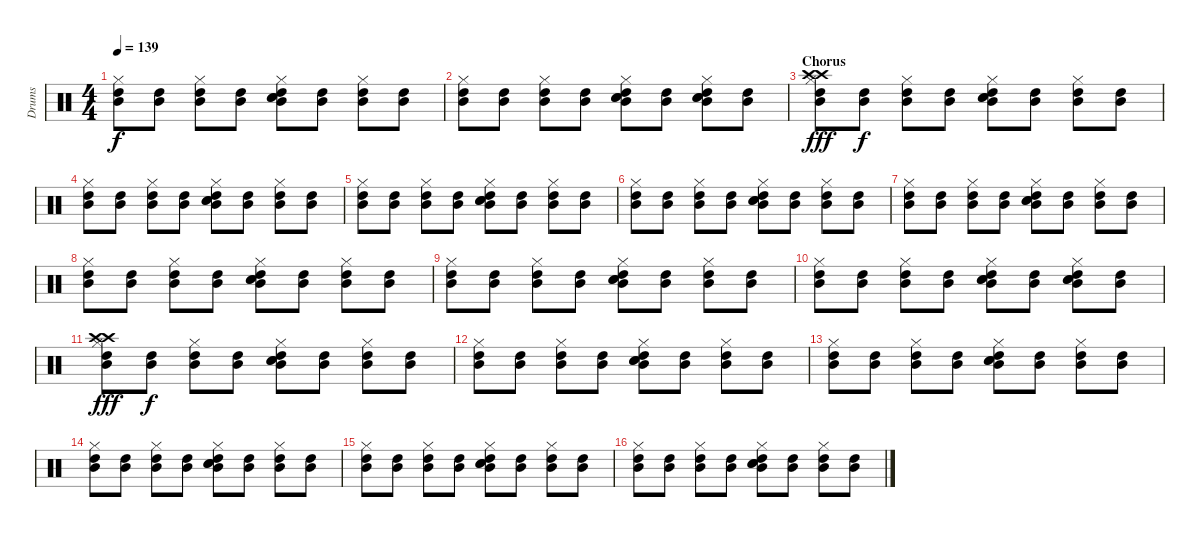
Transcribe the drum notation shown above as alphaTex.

\track ("Drums" "Drums") {instrument percussion}
\staff {score}
\articulation defaults
\ts (4 4)
\tempo 139
\clef neutral
\ks c
("Hi-Hat (closed)" "Mid Tom (hit)" "High Tom (hit)").8{dy f} ("Mid Tom (hit)" "High Tom (hit)").8 ("Hi-Hat (closed)" "Mid Tom (hit)" "High Tom (hit)").8 ("Mid Tom (hit)" "High Tom (hit)").8 ("Hi-Hat (closed)" "Mid Tom (hit)" "High Tom (hit)" "Electric Snare (hit)" "Electric Snare (hit)").8 ("Mid Tom (hit)" "High Tom (hit)").8 ("Hi-Hat (closed)" "Mid Tom (hit)" "High Tom (hit)").8 ("Mid Tom (hit)" "High Tom (hit)").8 |
("Hi-Hat (closed)" "Mid Tom (hit)" "High Tom (hit)").8 ("Mid Tom (hit)" "High Tom (hit)").8 ("Hi-Hat (closed)" "Mid Tom (hit)" "High Tom (hit)").8 ("Mid Tom (hit)" "High Tom (hit)").8 ("Hi-Hat (closed)" "Mid Tom (hit)" "High Tom (hit)" "Electric Snare (hit)" "Electric Snare (hit)").8 ("Mid Tom (hit)" "High Tom (hit)").8 ("Hi-Hat (closed)" "Mid Tom (hit)" "High Tom (hit)" "Electric Snare (hit)" "Electric Snare (hit)").8 ("Mid Tom (hit)" "High Tom (hit)").8 |
\section ("" "Chorus")
("Hi-Hat (closed)" "Mid Tom (hit)" "High Tom (hit)" "Crash high (hit)" "Crash high (hit)").8{dy fff} ("Mid Tom (hit)" "High Tom (hit)").8{dy f} ("Hi-Hat (closed)" "Mid Tom (hit)" "High Tom (hit)").8 ("Mid Tom (hit)" "High Tom (hit)").8 ("Hi-Hat (closed)" "Mid Tom (hit)" "High Tom (hit)" "Electric Snare (hit)" "Electric Snare (hit)").8 ("Mid Tom (hit)" "High Tom (hit)").8 ("Hi-Hat (closed)" "Mid Tom (hit)" "High Tom (hit)").8 ("Mid Tom (hit)" "High Tom (hit)").8 |
("Hi-Hat (closed)" "Mid Tom (hit)" "High Tom (hit)").8 ("Mid Tom (hit)" "High Tom (hit)").8 ("Hi-Hat (closed)" "Mid Tom (hit)" "High Tom (hit)").8 ("Mid Tom (hit)" "High Tom (hit)").8 ("Hi-Hat (closed)" "Mid Tom (hit)" "High Tom (hit)" "Electric Snare (hit)" "Electric Snare (hit)").8 ("Mid Tom (hit)" "High Tom (hit)").8 ("Hi-Hat (closed)" "Mid Tom (hit)" "High Tom (hit)").8 ("Mid Tom (hit)" "High Tom (hit)").8 |
("Hi-Hat (closed)" "Mid Tom (hit)" "High Tom (hit)").8 ("Mid Tom (hit)" "High Tom (hit)").8 ("Hi-Hat (closed)" "Mid Tom (hit)" "High Tom (hit)").8 ("Mid Tom (hit)" "High Tom (hit)").8 ("Hi-Hat (closed)" "Mid Tom (hit)" "High Tom (hit)" "Electric Snare (hit)" "Electric Snare (hit)").8 ("Mid Tom (hit)" "High Tom (hit)").8 ("Hi-Hat (closed)" "Mid Tom (hit)" "High Tom (hit)").8 ("Mid Tom (hit)" "High Tom (hit)").8 |
("Hi-Hat (closed)" "Mid Tom (hit)" "High Tom (hit)").8 ("Mid Tom (hit)" "High Tom (hit)").8 ("Hi-Hat (closed)" "Mid Tom (hit)" "High Tom (hit)").8 ("Mid Tom (hit)" "High Tom (hit)").8 ("Hi-Hat (closed)" "Mid Tom (hit)" "High Tom (hit)" "Electric Snare (hit)" "Electric Snare (hit)").8 ("Mid Tom (hit)" "High Tom (hit)").8 ("Hi-Hat (closed)" "Mid Tom (hit)" "High Tom (hit)").8 ("Mid Tom (hit)" "High Tom (hit)").8 |
("Hi-Hat (closed)" "Mid Tom (hit)" "High Tom (hit)").8 ("Mid Tom (hit)" "High Tom (hit)").8 ("Hi-Hat (closed)" "Mid Tom (hit)" "High Tom (hit)").8 ("Mid Tom (hit)" "High Tom (hit)").8 ("Hi-Hat (closed)" "Mid Tom (hit)" "High Tom (hit)" "Electric Snare (hit)" "Electric Snare (hit)").8 ("Mid Tom (hit)" "High Tom (hit)").8 ("Hi-Hat (closed)" "Mid Tom (hit)" "High Tom (hit)").8 ("Mid Tom (hit)" "High Tom (hit)").8 |
("Hi-Hat (closed)" "Mid Tom (hit)" "High Tom (hit)").8 ("Mid Tom (hit)" "High Tom (hit)").8 ("Hi-Hat (closed)" "Mid Tom (hit)" "High Tom (hit)").8 ("Mid Tom (hit)" "High Tom (hit)").8 ("Hi-Hat (closed)" "Mid Tom (hit)" "High Tom (hit)" "Electric Snare (hit)" "Electric Snare (hit)").8 ("Mid Tom (hit)" "High Tom (hit)").8 ("Hi-Hat (closed)" "Mid Tom (hit)" "High Tom (hit)").8 ("Mid Tom (hit)" "High Tom (hit)").8 |
("Hi-Hat (closed)" "Mid Tom (hit)" "High Tom (hit)").8 ("Mid Tom (hit)" "High Tom (hit)").8 ("Hi-Hat (closed)" "Mid Tom (hit)" "High Tom (hit)").8 ("Mid Tom (hit)" "High Tom (hit)").8 ("Hi-Hat (closed)" "Mid Tom (hit)" "High Tom (hit)" "Electric Snare (hit)" "Electric Snare (hit)").8 ("Mid Tom (hit)" "High Tom (hit)").8 ("Hi-Hat (closed)" "Mid Tom (hit)" "High Tom (hit)").8 ("Mid Tom (hit)" "High Tom (hit)").8 |
("Hi-Hat (closed)" "Mid Tom (hit)" "High Tom (hit)").8 ("Mid Tom (hit)" "High Tom (hit)").8 ("Hi-Hat (closed)" "Mid Tom (hit)" "High Tom (hit)").8 ("Mid Tom (hit)" "High Tom (hit)").8 ("Hi-Hat (closed)" "Mid Tom (hit)" "High Tom (hit)" "Electric Snare (hit)" "Electric Snare (hit)").8 ("Mid Tom (hit)" "High Tom (hit)").8 ("Hi-Hat (closed)" "Mid Tom (hit)" "High Tom (hit)" "Electric Snare (hit)" "Electric Snare (hit)").8 ("Mid Tom (hit)" "High Tom (hit)").8 |
("Hi-Hat (closed)" "Mid Tom (hit)" "High Tom (hit)" "Crash high (hit)" "Crash high (hit)").8{dy fff} ("Mid Tom (hit)" "High Tom (hit)").8{dy f} ("Hi-Hat (closed)" "Mid Tom (hit)" "High Tom (hit)").8 ("Mid Tom (hit)" "High Tom (hit)").8 ("Hi-Hat (closed)" "Mid Tom (hit)" "High Tom (hit)" "Electric Snare (hit)" "Electric Snare (hit)").8 ("Mid Tom (hit)" "High Tom (hit)").8 ("Hi-Hat (closed)" "Mid Tom (hit)" "High Tom (hit)").8 ("Mid Tom (hit)" "High Tom (hit)").8 |
("Hi-Hat (closed)" "Mid Tom (hit)" "High Tom (hit)").8 ("Mid Tom (hit)" "High Tom (hit)").8 ("Hi-Hat (closed)" "Mid Tom (hit)" "High Tom (hit)").8 ("Mid Tom (hit)" "High Tom (hit)").8 ("Hi-Hat (closed)" "Mid Tom (hit)" "High Tom (hit)" "Electric Snare (hit)" "Electric Snare (hit)").8 ("Mid Tom (hit)" "High Tom (hit)").8 ("Hi-Hat (closed)" "Mid Tom (hit)" "High Tom (hit)").8 ("Mid Tom (hit)" "High Tom (hit)").8 |
("Hi-Hat (closed)" "Mid Tom (hit)" "High Tom (hit)").8 ("Mid Tom (hit)" "High Tom (hit)").8 ("Hi-Hat (closed)" "Mid Tom (hit)" "High Tom (hit)").8 ("Mid Tom (hit)" "High Tom (hit)").8 ("Hi-Hat (closed)" "Mid Tom (hit)" "High Tom (hit)" "Electric Snare (hit)" "Electric Snare (hit)").8 ("Mid Tom (hit)" "High Tom (hit)").8 ("Hi-Hat (closed)" "Mid Tom (hit)" "High Tom (hit)").8 ("Mid Tom (hit)" "High Tom (hit)").8 |
("Hi-Hat (closed)" "Mid Tom (hit)" "High Tom (hit)").8 ("Mid Tom (hit)" "High Tom (hit)").8 ("Hi-Hat (closed)" "Mid Tom (hit)" "High Tom (hit)").8 ("Mid Tom (hit)" "High Tom (hit)").8 ("Hi-Hat (closed)" "Mid Tom (hit)" "High Tom (hit)" "Electric Snare (hit)" "Electric Snare (hit)").8 ("Mid Tom (hit)" "High Tom (hit)").8 ("Hi-Hat (closed)" "Mid Tom (hit)" "High Tom (hit)").8 ("Mid Tom (hit)" "High Tom (hit)").8 |
("Hi-Hat (closed)" "Mid Tom (hit)" "High Tom (hit)").8 ("Mid Tom (hit)" "High Tom (hit)").8 ("Hi-Hat (closed)" "Mid Tom (hit)" "High Tom (hit)").8 ("Mid Tom (hit)" "High Tom (hit)").8 ("Hi-Hat (closed)" "Mid Tom (hit)" "High Tom (hit)" "Electric Snare (hit)" "Electric Snare (hit)").8 ("Mid Tom (hit)" "High Tom (hit)").8 ("Hi-Hat (closed)" "Mid Tom (hit)" "High Tom (hit)").8 ("Mid Tom (hit)" "High Tom (hit)").8 |
("Hi-Hat (closed)" "Mid Tom (hit)" "High Tom (hit)").8 ("Mid Tom (hit)" "High Tom (hit)").8 ("Hi-Hat (closed)" "Mid Tom (hit)" "High Tom (hit)").8 ("Mid Tom (hit)" "High Tom (hit)").8 ("Hi-Hat (closed)" "Mid Tom (hit)" "High Tom (hit)" "Electric Snare (hit)" "Electric Snare (hit)").8 ("Mid Tom (hit)" "High Tom (hit)").8 ("Hi-Hat (closed)" "Mid Tom (hit)" "High Tom (hit)").8 ("Mid Tom (hit)" "High Tom (hit)").8
